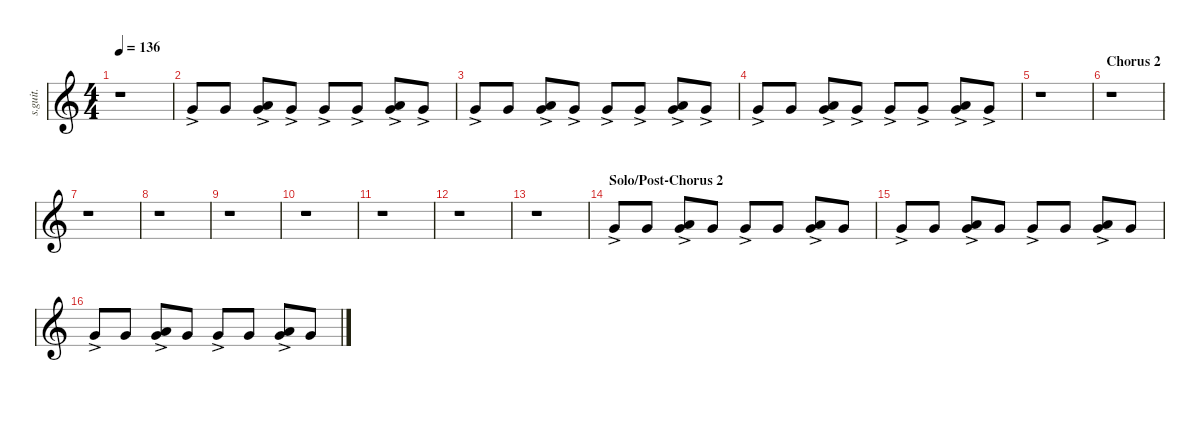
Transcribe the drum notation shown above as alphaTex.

\defaultSystemsLayout 4
\hideDynamics
\bracketExtendMode nobrackets
\track ("Shawn Crahan " "s.guit.") {instrument percussion}
\staff {score}
\articulation defaults
\ts (4 4)
\tempo 136
\clef g2
\ks c
r.1{dy fff} |
"Very Low Tom (hit)"{ac}.8{lyrics (0 "") lyrics (1 "") lyrics (2 "") lyrics (3 "") lyrics (4 "")} "Very Low Tom (hit)".8{lyrics (0 "") lyrics (1 "") lyrics (2 "") lyrics (3 "") lyrics (4 "")} ("Very Low Tom (hit)"{ac} "Low Floor Tom (hit)").8{lyrics (0 "") lyrics (1 "") lyrics (2 "") lyrics (3 "") lyrics (4 "")} "Very Low Tom (hit)"{ac}.8{lyrics (0 "") lyrics (1 "") lyrics (2 "") lyrics (3 "") lyrics (4 "")} "Very Low Tom (hit)"{ac}.8{lyrics (0 "") lyrics (1 "") lyrics (2 "") lyrics (3 "") lyrics (4 "")} "Very Low Tom (hit)"{ac}.8{lyrics (0 "") lyrics (1 "") lyrics (2 "") lyrics (3 "") lyrics (4 "")} ("Very Low Tom (hit)"{ac} "Low Floor Tom (hit)").8{lyrics (0 "") lyrics (1 "") lyrics (2 "") lyrics (3 "") lyrics (4 "")} "Very Low Tom (hit)"{ac}.8{lyrics (0 "") lyrics (1 "") lyrics (2 "") lyrics (3 "") lyrics (4 "")} |
"Very Low Tom (hit)"{ac}.8{lyrics (0 "") lyrics (1 "") lyrics (2 "") lyrics (3 "") lyrics (4 "")} "Very Low Tom (hit)".8{lyrics (0 "") lyrics (1 "") lyrics (2 "") lyrics (3 "") lyrics (4 "")} ("Very Low Tom (hit)"{ac} "Low Floor Tom (hit)").8{lyrics (0 "") lyrics (1 "") lyrics (2 "") lyrics (3 "") lyrics (4 "")} "Very Low Tom (hit)"{ac}.8{lyrics (0 "") lyrics (1 "") lyrics (2 "") lyrics (3 "") lyrics (4 "")} "Very Low Tom (hit)"{ac}.8{lyrics (0 "") lyrics (1 "") lyrics (2 "") lyrics (3 "") lyrics (4 "")} "Very Low Tom (hit)"{ac}.8{lyrics (0 "") lyrics (1 "") lyrics (2 "") lyrics (3 "") lyrics (4 "")} ("Very Low Tom (hit)"{ac} "Low Floor Tom (hit)").8{lyrics (0 "") lyrics (1 "") lyrics (2 "") lyrics (3 "") lyrics (4 "")} "Very Low Tom (hit)"{ac}.8{lyrics (0 "") lyrics (1 "") lyrics (2 "") lyrics (3 "") lyrics (4 "")} |
"Very Low Tom (hit)"{ac}.8{lyrics (0 "") lyrics (1 "") lyrics (2 "") lyrics (3 "") lyrics (4 "")} "Very Low Tom (hit)".8{lyrics (0 "") lyrics (1 "") lyrics (2 "") lyrics (3 "") lyrics (4 "")} ("Very Low Tom (hit)"{ac} "Low Floor Tom (hit)").8{lyrics (0 "") lyrics (1 "") lyrics (2 "") lyrics (3 "") lyrics (4 "")} "Very Low Tom (hit)"{ac}.8{lyrics (0 "") lyrics (1 "") lyrics (2 "") lyrics (3 "") lyrics (4 "")} "Very Low Tom (hit)"{ac}.8{lyrics (0 "") lyrics (1 "") lyrics (2 "") lyrics (3 "") lyrics (4 "")} "Very Low Tom (hit)"{ac}.8{lyrics (0 "") lyrics (1 "") lyrics (2 "") lyrics (3 "") lyrics (4 "")} ("Very Low Tom (hit)"{ac} "Low Floor Tom (hit)").8{lyrics (0 "") lyrics (1 "") lyrics (2 "") lyrics (3 "") lyrics (4 "")} "Very Low Tom (hit)"{ac}.8{lyrics (0 "") lyrics (1 "") lyrics (2 "") lyrics (3 "") lyrics (4 "")} |
r.1 |
\section ("" "Chorus 2")
r.1 |
r.1 |
r.1 |
r.1 |
r.1 |
r.1 |
r.1 |
r.1 |
\section ("" "Solo/Post-Chorus 2")
"Very Low Tom (hit)"{ac}.8{lyrics (0 "") lyrics (1 "") lyrics (2 "") lyrics (3 "") lyrics (4 "")} "Very Low Tom (hit)".8{lyrics (0 "") lyrics (1 "") lyrics (2 "") lyrics (3 "") lyrics (4 "")} ("Very Low Tom (hit)"{ac} "Low Floor Tom (hit)").8{lyrics (0 "") lyrics (1 "") lyrics (2 "") lyrics (3 "") lyrics (4 "")} "Very Low Tom (hit)".8{lyrics (0 "") lyrics (1 "") lyrics (2 "") lyrics (3 "") lyrics (4 "")} "Very Low Tom (hit)"{ac}.8{lyrics (0 "") lyrics (1 "") lyrics (2 "") lyrics (3 "") lyrics (4 "")} "Very Low Tom (hit)".8{lyrics (0 "") lyrics (1 "") lyrics (2 "") lyrics (3 "") lyrics (4 "")} ("Very Low Tom (hit)"{ac} "Low Floor Tom (hit)").8{lyrics (0 "") lyrics (1 "") lyrics (2 "") lyrics (3 "") lyrics (4 "")} "Very Low Tom (hit)".8{lyrics (0 "") lyrics (1 "") lyrics (2 "") lyrics (3 "") lyrics (4 "")} |
"Very Low Tom (hit)"{ac}.8{lyrics (0 "") lyrics (1 "") lyrics (2 "") lyrics (3 "") lyrics (4 "")} "Very Low Tom (hit)".8{lyrics (0 "") lyrics (1 "") lyrics (2 "") lyrics (3 "") lyrics (4 "")} ("Very Low Tom (hit)"{ac} "Low Floor Tom (hit)").8{lyrics (0 "") lyrics (1 "") lyrics (2 "") lyrics (3 "") lyrics (4 "")} "Very Low Tom (hit)".8{lyrics (0 "") lyrics (1 "") lyrics (2 "") lyrics (3 "") lyrics (4 "")} "Very Low Tom (hit)"{ac}.8{lyrics (0 "") lyrics (1 "") lyrics (2 "") lyrics (3 "") lyrics (4 "")} "Very Low Tom (hit)".8{lyrics (0 "") lyrics (1 "") lyrics (2 "") lyrics (3 "") lyrics (4 "")} ("Very Low Tom (hit)"{ac} "Low Floor Tom (hit)").8{lyrics (0 "") lyrics (1 "") lyrics (2 "") lyrics (3 "") lyrics (4 "")} "Very Low Tom (hit)".8{lyrics (0 "") lyrics (1 "") lyrics (2 "") lyrics (3 "") lyrics (4 "")} |
"Very Low Tom (hit)"{ac}.8{lyrics (0 "") lyrics (1 "") lyrics (2 "") lyrics (3 "") lyrics (4 "")} "Very Low Tom (hit)".8{lyrics (0 "") lyrics (1 "") lyrics (2 "") lyrics (3 "") lyrics (4 "")} ("Very Low Tom (hit)"{ac} "Low Floor Tom (hit)").8{lyrics (0 "") lyrics (1 "") lyrics (2 "") lyrics (3 "") lyrics (4 "")} "Very Low Tom (hit)".8{lyrics (0 "") lyrics (1 "") lyrics (2 "") lyrics (3 "") lyrics (4 "")} "Very Low Tom (hit)"{ac}.8{lyrics (0 "") lyrics (1 "") lyrics (2 "") lyrics (3 "") lyrics (4 "")} "Very Low Tom (hit)".8{lyrics (0 "") lyrics (1 "") lyrics (2 "") lyrics (3 "") lyrics (4 "")} ("Very Low Tom (hit)"{ac} "Low Floor Tom (hit)").8{lyrics (0 "") lyrics (1 "") lyrics (2 "") lyrics (3 "") lyrics (4 "")} "Very Low Tom (hit)".8{lyrics (0 "") lyrics (1 "") lyrics (2 "") lyrics (3 "") lyrics (4 "")}
